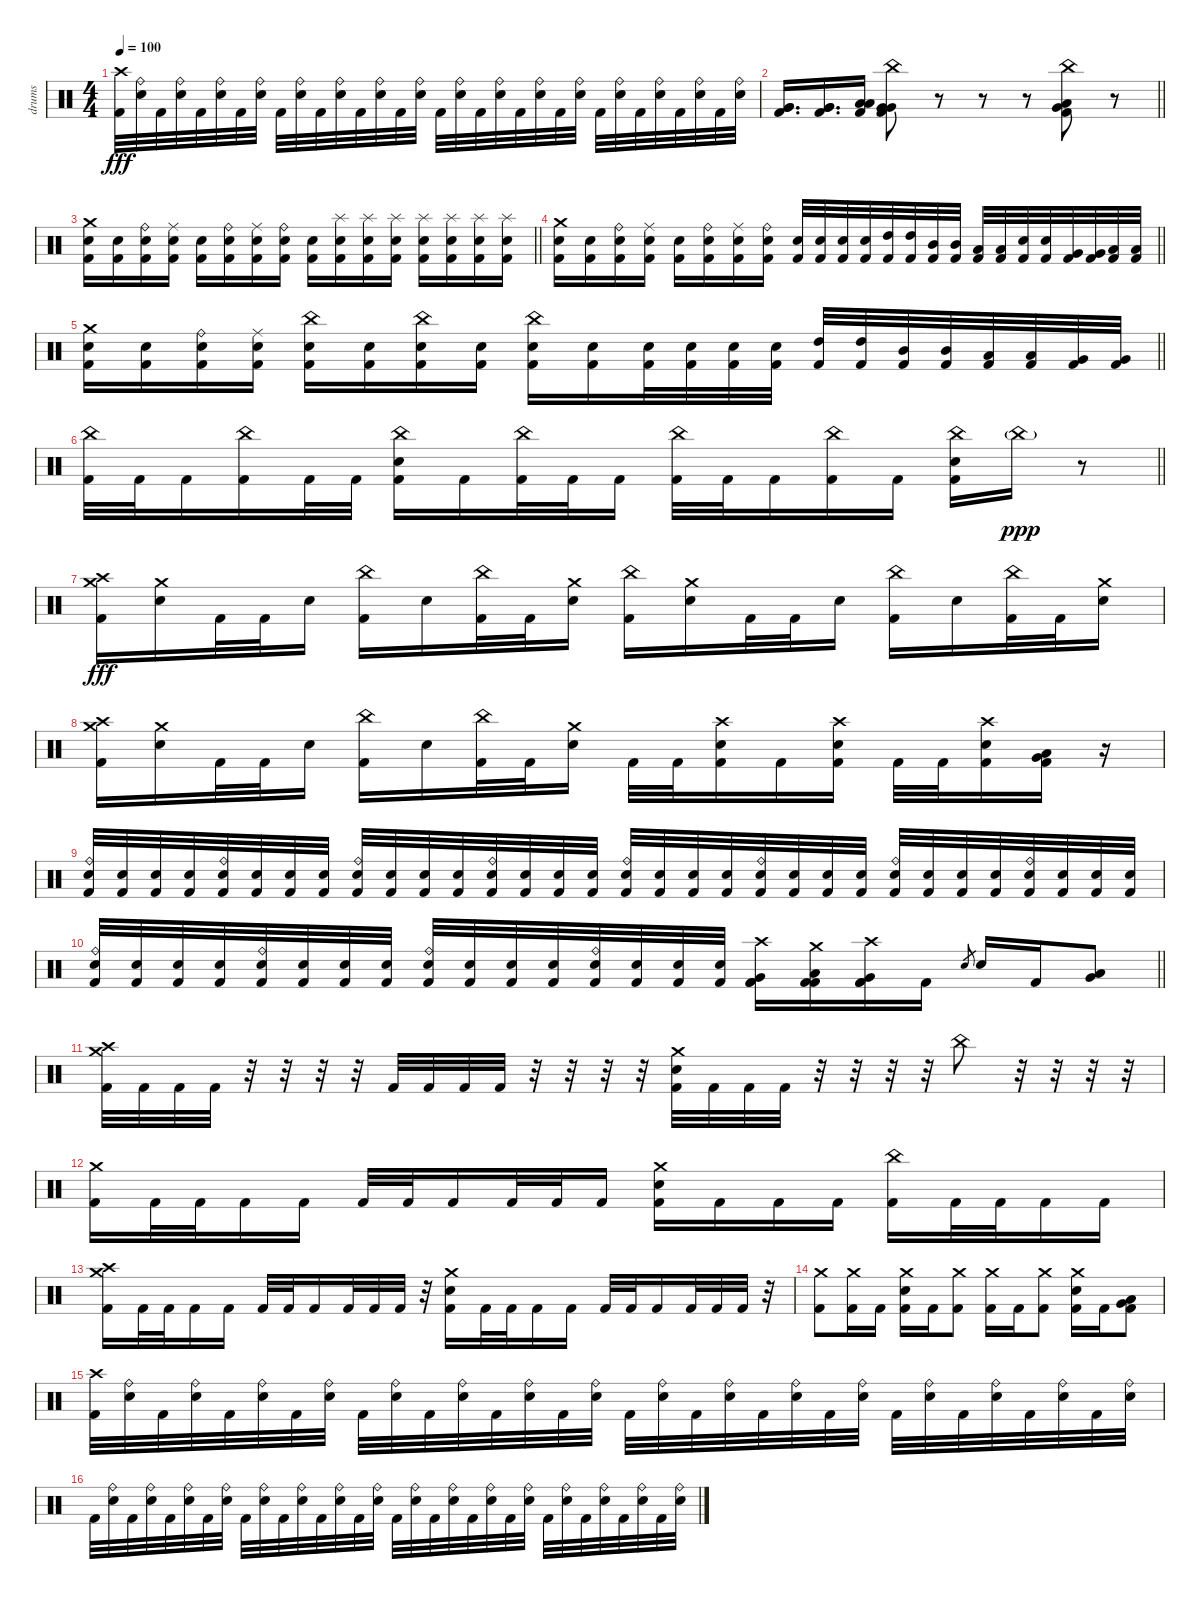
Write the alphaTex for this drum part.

\track ("drums" "drums") {instrument percussion}
\staff {score}
\articulation defaults
\ts (4 4)
\tempo 100
\clef neutral
\ks c
("Crash high (hit)" "Kick (hit) 2").32{dy fff} ("Ride (bell)" "Electric Snare (hit)").32 "Kick (hit) 2".32 ("Ride (bell)" "Electric Snare (hit)").32 "Kick (hit) 2".32 ("Ride (bell)" "Electric Snare (hit)").32 "Kick (hit) 2".32 ("Ride (bell)" "Electric Snare (hit)").32 "Kick (hit) 2".32 ("Ride (bell)" "Electric Snare (hit)").32 "Kick (hit) 2".32 ("Ride (bell)" "Electric Snare (hit)").32 "Kick (hit) 2".32 ("Ride (bell)" "Electric Snare (hit)").32 "Kick (hit) 2".32 ("Ride (bell)" "Electric Snare (hit)").32 "Kick (hit) 2".32 ("Ride (bell)" "Electric Snare (hit)").32 "Kick (hit) 2".32 ("Ride (bell)" "Electric Snare (hit)").32 "Kick (hit) 2".32 ("Ride (bell)" "Electric Snare (hit)").32 "Kick (hit) 2".32 ("Ride (bell)" "Electric Snare (hit)").32 "Kick (hit) 2".32 ("Ride (bell)" "Electric Snare (hit)").32 "Kick (hit) 2".32 ("Ride (bell)" "Electric Snare (hit)").32 "Kick (hit) 2".32 ("Ride (bell)" "Electric Snare (hit)").32 "Kick (hit) 2".32 ("Ride (bell)" "Electric Snare (hit)").32 |
\barLineRight lightlight
("Very Low Tom (hit)" "Very Low Tom (hit)" "Kick (hit) 2").16{d} ("Very Low Tom (hit)" "Very Low Tom (hit)" "Kick (hit) 2").16{d} ("Low Floor Tom (hit)" "Low Floor Tom (hit)" "Kick (hit) 2").16 ("China (hit)" "Very Low Tom (hit)" "Very Low Tom (hit)" "Kick (hit) 2").8 r.8 r.8 r.8 ("China (hit)" "Very Low Tom (hit)" "Low Floor Tom (hit)" "Kick (hit) 2").8 r.8 |
\section ("" "")
\barLineRight lightlight
("Crash medium (hit)" "Electric Snare (hit)" "Kick (hit) 2").16 ("Electric Snare (hit)" "Kick (hit) 2").16 ("Ride (bell)" "Electric Snare (hit)" "Kick (hit) 2").16 ("Ride (middle)" "Electric Snare (hit)" "Kick (hit) 2").16 ("Electric Snare (hit)" "Kick (hit) 2").16 ("Ride (bell)" "Electric Snare (hit)" "Kick (hit) 2").16 ("Ride (middle)" "Electric Snare (hit)" "Kick (hit) 2").16 ("Ride (bell)" "Electric Snare (hit)" "Kick (hit) 2").16 ("Electric Snare (hit)" "Kick (hit) 2").16 ("Splash (hit)" "Electric Snare (hit)" "Kick (hit) 2").16 ("Splash (hit)" "Electric Snare (hit)" "Kick (hit) 2").16 ("Splash (hit)" "Electric Snare (hit)" "Kick (hit) 2").16 ("Splash (hit)" "Electric Snare (hit)" "Kick (hit) 2").16 ("Splash (hit)" "Electric Snare (hit)" "Kick (hit) 2").16 ("Splash (hit)" "Electric Snare (hit)" "Kick (hit) 2").16 ("Splash (hit)" "Electric Snare (hit)" "Kick (hit) 2").16 |
\barLineRight lightlight
("Crash medium (hit)" "Electric Snare (hit)" "Kick (hit) 2").16 ("Electric Snare (hit)" "Kick (hit) 2").16 ("Ride (bell)" "Electric Snare (hit)" "Kick (hit) 2").16 ("Ride (middle)" "Electric Snare (hit)" "Kick (hit) 2").16 ("Electric Snare (hit)" "Kick (hit) 2").16 ("Ride (bell)" "Electric Snare (hit)" "Kick (hit) 2").16 ("Ride (middle)" "Electric Snare (hit)" "Kick (hit) 2").16 ("Ride (bell)" "Electric Snare (hit)" "Kick (hit) 2").16 ("Electric Snare (hit)" "Kick (hit) 2").32 ("Electric Snare (hit)" "Kick (hit) 2").32 ("Electric Snare (hit)" "Kick (hit) 2").32 ("Electric Snare (hit)" "Kick (hit) 2").32 ("High Tom (hit)" "Kick (hit) 2").32 ("High Tom (hit)" "Kick (hit) 2").32 ("Mid Tom (hit)" "Kick (hit) 2").32 ("Mid Tom (hit)" "Kick (hit) 2").32 ("Low Tom (hit)" "Kick (hit) 2").32 ("Low Tom (hit)" "Kick (hit) 2").32 ("Electric Snare (hit)" "Kick (hit) 2").32 ("Electric Snare (hit)" "Kick (hit) 2").32 ("Very Low Tom (hit)" "Kick (hit) 2").32 ("Very Low Tom (hit)" "Kick (hit) 2").32 ("Low Floor Tom (hit)" "Kick (hit) 2").32 ("Low Floor Tom (hit)" "Kick (hit) 2").32 |
\barLineRight lightlight
("Crash medium (hit)" "Electric Snare (hit)" "Kick (hit) 2").16 ("Electric Snare (hit)" "Kick (hit) 2").16 ("Ride (bell)" "Electric Snare (hit)" "Kick (hit) 2").16 ("Ride (middle)" "Electric Snare (hit)" "Kick (hit) 2").16 ("China (hit)" "Electric Snare (hit)" "Kick (hit) 2").16 ("Electric Snare (hit)" "Kick (hit) 2").16 ("China (hit)" "Electric Snare (hit)" "Kick (hit) 2").16 ("Electric Snare (hit)" "Kick (hit) 2").16 ("China (hit)" "Electric Snare (hit)" "Kick (hit) 2").16 ("Electric Snare (hit)" "Kick (hit) 2").16 ("Electric Snare (hit)" "Kick (hit) 2").32 ("Electric Snare (hit)" "Kick (hit) 2").32 ("Electric Snare (hit)" "Kick (hit) 2").32 ("Electric Snare (hit)" "Kick (hit) 2").32 ("High Tom (hit)" "Kick (hit) 2").32 ("High Tom (hit)" "Kick (hit) 2").32 ("Mid Tom (hit)" "Kick (hit) 2").32 ("Mid Tom (hit)" "Kick (hit) 2").32 ("Low Tom (hit)" "Kick (hit) 2").32 ("Low Tom (hit)" "Kick (hit) 2").32 ("Very Low Tom (hit)" "Kick (hit) 2").32 ("Very Low Tom (hit)" "Kick (hit) 2").32 |
\barLineRight lightlight
("China (hit)" "Kick (hit) 2").32 "Kick (hit) 2".32 "Kick (hit) 2".16 ("China (hit)" "Kick (hit) 2").16 "Kick (hit) 2".32 "Kick (hit) 2".32 ("China (hit)" "Electric Snare (hit)" "Kick (hit) 2").16 "Kick (hit) 2".16 ("China (hit)" "Kick (hit) 2").32 "Kick (hit) 2".32 "Kick (hit) 2".16 ("China (hit)" "Kick (hit) 2").32 "Kick (hit) 2".32 "Kick (hit) 2".16 ("China (hit)" "Kick (hit) 2").16 "Kick (hit) 2".16 ("China (hit)" "Electric Snare (hit)" "Kick (hit) 2").16 "China (hit)"{g}.16{dy ppp} r.8 |
("Crash high (hit)" "Crash medium (hit)" "Kick (hit) 2").16{dy fff} ("Crash medium (hit)" "Electric Snare (hit)").16 "Kick (hit) 2".32 "Kick (hit) 2".32 "Electric Snare (hit)".16 ("China (hit)" "Kick (hit) 2").16 "Electric Snare (hit)".16 ("China (hit)" "Kick (hit) 2").32 "Kick (hit) 2".32 ("Crash medium (hit)" "Electric Snare (hit)").16 ("China (hit)" "Kick (hit) 2").16 ("Crash medium (hit)" "Electric Snare (hit)").16 "Kick (hit) 2".32 "Kick (hit) 2".32 "Electric Snare (hit)".16 ("China (hit)" "Kick (hit) 2").16 "Electric Snare (hit)".16 ("China (hit)" "Kick (hit) 2").32 "Kick (hit) 2".32 ("Crash medium (hit)" "Electric Snare (hit)").16 |
("Crash high (hit)" "Crash medium (hit)" "Kick (hit) 2").16 ("Crash medium (hit)" "Electric Snare (hit)").16 "Kick (hit) 2".32 "Kick (hit) 2".32 "Electric Snare (hit)".16 ("China (hit)" "Kick (hit) 2").16 "Electric Snare (hit)".16 ("China (hit)" "Kick (hit) 2").32 "Kick (hit) 2".32 ("Crash medium (hit)" "Electric Snare (hit)").16 "Kick (hit) 2".32 "Kick (hit) 2".32 ("Crash high (hit)" "Electric Snare (hit)" "Kick (hit) 2").16 "Kick (hit) 2".16 ("Crash high (hit)" "Electric Snare (hit)" "Kick (hit) 2").16 "Kick (hit) 2".32 "Kick (hit) 2".32 ("Crash high (hit)" "Electric Snare (hit)" "Kick (hit) 2").16 ("Very Low Tom (hit)" "Low Floor Tom (hit)" "Kick (hit) 2").16 r.16 |
("Ride (bell)" "Electric Snare (hit)" "Kick (hit) 2").32 ("Electric Snare (hit)" "Kick (hit) 2").32 ("Electric Snare (hit)" "Kick (hit) 2").32 ("Electric Snare (hit)" "Kick (hit) 2").32 ("Ride (bell)" "Electric Snare (hit)" "Kick (hit) 2").32 ("Electric Snare (hit)" "Kick (hit) 2").32 ("Electric Snare (hit)" "Kick (hit) 2").32 ("Electric Snare (hit)" "Kick (hit) 2").32 ("Ride (bell)" "Electric Snare (hit)" "Kick (hit) 2").32 ("Electric Snare (hit)" "Kick (hit) 2").32 ("Electric Snare (hit)" "Kick (hit) 2").32 ("Electric Snare (hit)" "Kick (hit) 2").32 ("Ride (bell)" "Electric Snare (hit)" "Kick (hit) 2").32 ("Electric Snare (hit)" "Kick (hit) 2").32 ("Electric Snare (hit)" "Kick (hit) 2").32 ("Electric Snare (hit)" "Kick (hit) 2").32 ("Ride (bell)" "Electric Snare (hit)" "Kick (hit) 2").32 ("Electric Snare (hit)" "Kick (hit) 2").32 ("Electric Snare (hit)" "Kick (hit) 2").32 ("Electric Snare (hit)" "Kick (hit) 2").32 ("Ride (bell)" "Electric Snare (hit)" "Kick (hit) 2").32 ("Electric Snare (hit)" "Kick (hit) 2").32 ("Electric Snare (hit)" "Kick (hit) 2").32 ("Electric Snare (hit)" "Kick (hit) 2").32 ("Ride (bell)" "Electric Snare (hit)" "Kick (hit) 2").32 ("Electric Snare (hit)" "Kick (hit) 2").32 ("Electric Snare (hit)" "Kick (hit) 2").32 ("Electric Snare (hit)" "Kick (hit) 2").32 ("Ride (bell)" "Electric Snare (hit)" "Kick (hit) 2").32 ("Electric Snare (hit)" "Kick (hit) 2").32 ("Electric Snare (hit)" "Kick (hit) 2").32 ("Electric Snare (hit)" "Kick (hit) 2").32 |
\barLineRight lightlight
("Ride (bell)" "Electric Snare (hit)" "Kick (hit) 2").32 ("Electric Snare (hit)" "Kick (hit) 2").32 ("Electric Snare (hit)" "Kick (hit) 2").32 ("Electric Snare (hit)" "Kick (hit) 2").32 ("Ride (bell)" "Electric Snare (hit)" "Kick (hit) 2").32 ("Electric Snare (hit)" "Kick (hit) 2").32 ("Electric Snare (hit)" "Kick (hit) 2").32 ("Electric Snare (hit)" "Kick (hit) 2").32 ("Ride (bell)" "Electric Snare (hit)" "Kick (hit) 2").32 ("Electric Snare (hit)" "Kick (hit) 2").32 ("Electric Snare (hit)" "Kick (hit) 2").32 ("Electric Snare (hit)" "Kick (hit) 2").32 ("Ride (bell)" "Electric Snare (hit)" "Kick (hit) 2").32 ("Electric Snare (hit)" "Kick (hit) 2").32 ("Electric Snare (hit)" "Kick (hit) 2").32 ("Electric Snare (hit)" "Kick (hit) 2").32 ("Crash high (hit)" "Very Low Tom (hit)" "Kick (hit) 2" "Kick (hit) 2").16 ("Crash medium (hit)" "Low Floor Tom (hit)" "Kick (hit) 2" "Kick (hit) 2").16 ("Crash high (hit)" "Very Low Tom (hit)" "Kick (hit) 2" "Kick (hit) 2").16 "Kick (hit) 2".16 "Electric Snare (hit)".8{gr} "Electric Snare (hit)".16 "Kick (hit) 2".16 ("Very Low Tom (hit)" "Low Floor Tom (hit)").8 |
\section ("" "")
("Crash high (hit)" "Crash medium (hit)" "Kick (hit) 2").32 "Kick (hit) 2".32 "Kick (hit) 2".32 "Kick (hit) 2".32 r.32 r.32 r.32 r.32 "Kick (hit) 2".32 "Kick (hit) 2".32 "Kick (hit) 2".32 "Kick (hit) 2".32 r.32 r.32 r.32 r.32 ("Crash medium (hit)" "Electric Snare (hit)" "Kick (hit) 2").32 "Kick (hit) 2".32 "Kick (hit) 2".32 "Kick (hit) 2".32 r.32 r.32 r.32 r.32 "China (hit)".8 r.32 r.32 r.32 r.32 |
("Crash medium (hit)" "Kick (hit) 2").16 "Kick (hit) 2".32 "Kick (hit) 2".32 "Kick (hit) 2".16 "Kick (hit) 2".16 "Kick (hit) 2".32 "Kick (hit) 2".32 "Kick (hit) 2".16 "Kick (hit) 2".32 "Kick (hit) 2".32 "Kick (hit) 2".16 ("Crash medium (hit)" "Electric Snare (hit)" "Kick (hit) 2").16 "Kick (hit) 2".16 "Kick (hit) 2".16 "Kick (hit) 2".16 ("China (hit)" "Kick (hit) 2").16 "Kick (hit) 2".32 "Kick (hit) 2".32 "Kick (hit) 2".16 "Kick (hit) 2".16 |
("Crash high (hit)" "Crash medium (hit)" "Kick (hit) 2").16 "Kick (hit) 2".32 "Kick (hit) 2".32 "Kick (hit) 2".16 "Kick (hit) 2".16 "Kick (hit) 2".32 "Kick (hit) 2".32 "Kick (hit) 2".16 "Kick (hit) 2".32 "Kick (hit) 2".32 "Kick (hit) 2".32 r.32 ("Crash medium (hit)" "Electric Snare (hit)" "Kick (hit) 2").16 "Kick (hit) 2".32 "Kick (hit) 2".32 "Kick (hit) 2".16 "Kick (hit) 2".16 "Kick (hit) 2".32 "Kick (hit) 2".32 "Kick (hit) 2".16 "Kick (hit) 2".32 "Kick (hit) 2".32 "Kick (hit) 2".32 r.32 |
("Crash medium (hit)" "Kick (hit) 2").8 ("Crash medium (hit)" "Kick (hit) 2").16 "Kick (hit) 2".16 ("Crash medium (hit)" "Electric Snare (hit)" "Kick (hit) 2").16 "Kick (hit) 2".16 ("Crash medium (hit)" "Kick (hit) 2").8 ("Crash medium (hit)" "Kick (hit) 2").16 "Kick (hit) 2".16 ("Crash medium (hit)" "Kick (hit) 2").8 ("Crash medium (hit)" "Electric Snare (hit)" "Kick (hit) 2").16 "Kick (hit) 2".16 ("Very Low Tom (hit)" "Low Floor Tom (hit)" "Kick (hit) 2").8 |
("Crash high (hit)" "Kick (hit) 2").32 ("Ride (bell)" "Electric Snare (hit)").32 "Kick (hit) 2".32 ("Ride (bell)" "Electric Snare (hit)").32 "Kick (hit) 2".32 ("Ride (bell)" "Electric Snare (hit)").32 "Kick (hit) 2".32 ("Ride (bell)" "Electric Snare (hit)").32 "Kick (hit) 2".32 ("Ride (bell)" "Electric Snare (hit)").32 "Kick (hit) 2".32 ("Ride (bell)" "Electric Snare (hit)").32 "Kick (hit) 2".32 ("Ride (bell)" "Electric Snare (hit)").32 "Kick (hit) 2".32 ("Ride (bell)" "Electric Snare (hit)").32 "Kick (hit) 2".32 ("Ride (bell)" "Electric Snare (hit)").32 "Kick (hit) 2".32 ("Ride (bell)" "Electric Snare (hit)").32 "Kick (hit) 2".32 ("Ride (bell)" "Electric Snare (hit)").32 "Kick (hit) 2".32 ("Ride (bell)" "Electric Snare (hit)").32 "Kick (hit) 2".32 ("Ride (bell)" "Electric Snare (hit)").32 "Kick (hit) 2".32 ("Ride (bell)" "Electric Snare (hit)").32 "Kick (hit) 2".32 ("Ride (bell)" "Electric Snare (hit)").32 "Kick (hit) 2".32 ("Ride (bell)" "Electric Snare (hit)").32 |
"Kick (hit) 2".32 ("Ride (bell)" "Electric Snare (hit)").32 "Kick (hit) 2".32 ("Ride (bell)" "Electric Snare (hit)").32 "Kick (hit) 2".32 ("Ride (bell)" "Electric Snare (hit)").32 "Kick (hit) 2".32 ("Ride (bell)" "Electric Snare (hit)").32 "Kick (hit) 2".32 ("Ride (bell)" "Electric Snare (hit)").32 "Kick (hit) 2".32 ("Ride (bell)" "Electric Snare (hit)").32 "Kick (hit) 2".32 ("Ride (bell)" "Electric Snare (hit)").32 "Kick (hit) 2".32 ("Ride (bell)" "Electric Snare (hit)").32 "Kick (hit) 2".32 ("Ride (bell)" "Electric Snare (hit)").32 "Kick (hit) 2".32 ("Ride (bell)" "Electric Snare (hit)").32 "Kick (hit) 2".32 ("Ride (bell)" "Electric Snare (hit)").32 "Kick (hit) 2".32 ("Ride (bell)" "Electric Snare (hit)").32 "Kick (hit) 2".32 ("Ride (bell)" "Electric Snare (hit)").32 "Kick (hit) 2".32 ("Ride (bell)" "Electric Snare (hit)").32 "Kick (hit) 2".32 ("Ride (bell)" "Electric Snare (hit)").32 "Kick (hit) 2".32 ("Ride (bell)" "Electric Snare (hit)").32
